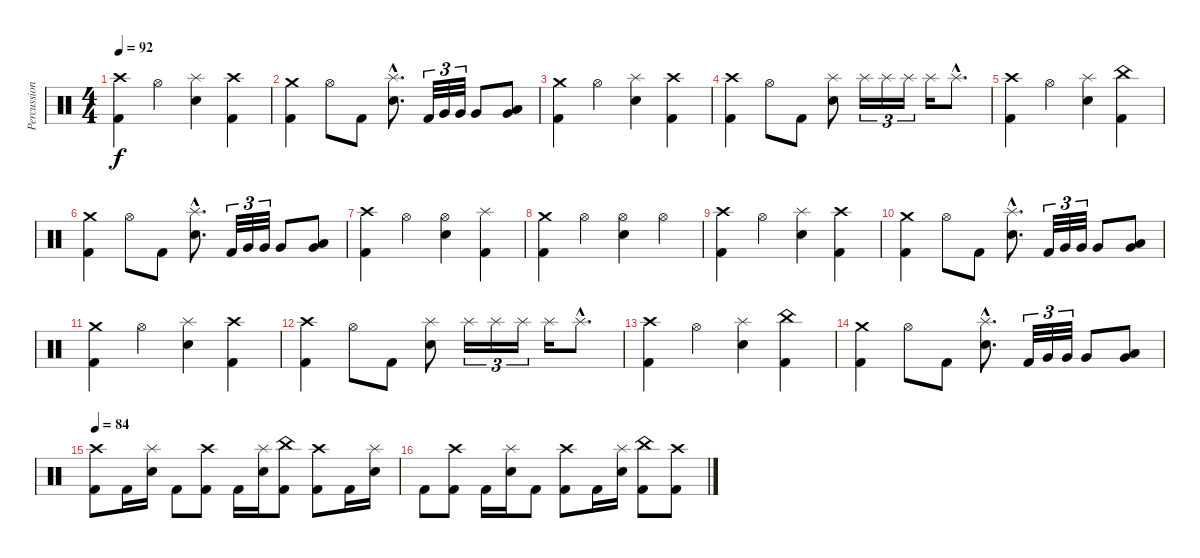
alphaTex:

\track ("Percussion" "Percussion") {instrument percussion}
\staff {score}
\articulation defaults
\ts (4 4)
\tempo 92
\clef neutral
\ks c
("Crash high (hit)" "Kick (hit) 2").4{dy f} "Hi-Hat (open)".4 ("Splash (hit)" "Electric Snare (hit)").4 ("Crash high (hit)" "Kick (hit) 2").4 |
("Crash medium (hit)" "Kick (hit) 2").4 "Hi-Hat (open)".8 "Kick (hit) 2".8 ("Splash (hit)"{hac} "Electric Snare (hit)"{hac}).8{d} "Kick (hit) 2".32{tu (3 2)} "Very Low Tom (hit)".32{tu (3 2)} "Very Low Tom (hit)".32{tu (3 2)} "Very Low Tom (hit)".8 ("Low Tom (hit)" "Very Low Tom (hit)").8 |
("Crash medium (hit)" "Kick (hit) 2").4 "Hi-Hat (open)".4 ("Splash (hit)" "Electric Snare (hit)").4 ("Kick (hit) 2" "Crash high (hit)").4 |
("Crash high (hit)" "Kick (hit) 2").4 "Hi-Hat (open)".8 "Kick (hit) 2".8 ("Splash (hit)" "Electric Snare (hit)").8 "Splash (hit)".16{tu (3 2)} "Splash (hit)".16{tu (3 2)} "Splash (hit)".16{tu (3 2)} "Splash (hit)".16 "Splash (hit)"{hac}.8{d} |
("Crash high (hit)" "Kick (hit) 2").4 "Hi-Hat (open)".4 ("Splash (hit)" "Electric Snare (hit)").4 ("China (hit)" "Kick (hit) 2").4 |
("Crash medium (hit)" "Kick (hit) 2").4 "Hi-Hat (open)".8 "Kick (hit) 2".8 ("Splash (hit)"{hac} "Electric Snare (hit)"{hac}).8{d} "Kick (hit) 2".32{tu (3 2)} "Very Low Tom (hit)".32{tu (3 2)} "Very Low Tom (hit)".32{tu (3 2)} "Very Low Tom (hit)".8 ("Low Tom (hit)" "Very Low Tom (hit)").8 |
("Crash high (hit)" "Kick (hit) 2").4 "Hi-Hat (open)".4 ("Hi-Hat (open)" "Electric Snare (hit)").4 ("Splash (hit)" "Kick (hit) 2").4 |
("Crash medium (hit)" "Kick (hit) 2").4 "Hi-Hat (open)".4 ("Hi-Hat (open)" "Electric Snare (hit)").4 "Hi-Hat (open)".4 |
("Crash high (hit)" "Kick (hit) 2").4 "Hi-Hat (open)".4 ("Splash (hit)" "Electric Snare (hit)").4 ("Crash high (hit)" "Kick (hit) 2").4 |
("Crash medium (hit)" "Kick (hit) 2").4 "Hi-Hat (open)".8 "Kick (hit) 2".8 ("Splash (hit)"{hac} "Electric Snare (hit)"{hac}).8{d} "Kick (hit) 2".32{tu (3 2)} "Very Low Tom (hit)".32{tu (3 2)} "Very Low Tom (hit)".32{tu (3 2)} "Very Low Tom (hit)".8 ("Low Tom (hit)" "Very Low Tom (hit)").8 |
("Crash medium (hit)" "Kick (hit) 2").4 "Hi-Hat (open)".4 ("Splash (hit)" "Electric Snare (hit)").4 ("Kick (hit) 2" "Crash high (hit)").4 |
("Crash high (hit)" "Kick (hit) 2").4 "Hi-Hat (open)".8 "Kick (hit) 2".8 ("Splash (hit)" "Electric Snare (hit)").8 "Splash (hit)".16{tu (3 2)} "Splash (hit)".16{tu (3 2)} "Splash (hit)".16{tu (3 2)} "Splash (hit)".16 "Splash (hit)"{hac}.8{d} |
("Crash high (hit)" "Kick (hit) 2").4 "Hi-Hat (open)".4 ("Splash (hit)" "Electric Snare (hit)").4 ("China (hit)" "Kick (hit) 2").4 |
("Crash medium (hit)" "Kick (hit) 2").4 "Hi-Hat (open)".8 "Kick (hit) 2".8 ("Splash (hit)"{hac} "Electric Snare (hit)"{hac}).8{d} "Kick (hit) 2".32{tu (3 2)} "Very Low Tom (hit)".32{tu (3 2)} "Very Low Tom (hit)".32{tu (3 2)} "Very Low Tom (hit)".8 ("Low Tom (hit)" "Very Low Tom (hit)").8 |
\tempo 84
("Crash high (hit)" "Kick (hit) 2").8 "Kick (hit) 2".16 ("Splash (hit)" "Electric Snare (hit)").16 "Kick (hit) 2".8 ("Crash high (hit)" "Kick (hit) 2").8 "Kick (hit) 2".16 ("Splash (hit)" "Electric Snare (hit)").16 ("China (hit)" "Kick (hit) 2").8 ("Crash high (hit)" "Kick (hit) 2").8 "Kick (hit) 2".16 ("Splash (hit)" "Electric Snare (hit)").16 |
"Kick (hit) 2".8 ("Crash high (hit)" "Kick (hit) 2").8 "Kick (hit) 2".16 ("Splash (hit)" "Electric Snare (hit)").16 "Kick (hit) 2".8 ("Crash high (hit)" "Kick (hit) 2").8 "Kick (hit) 2".16 ("Splash (hit)" "Electric Snare (hit)").16 ("China (hit)" "Kick (hit) 2").8 ("Crash high (hit)" "Kick (hit) 2").8
